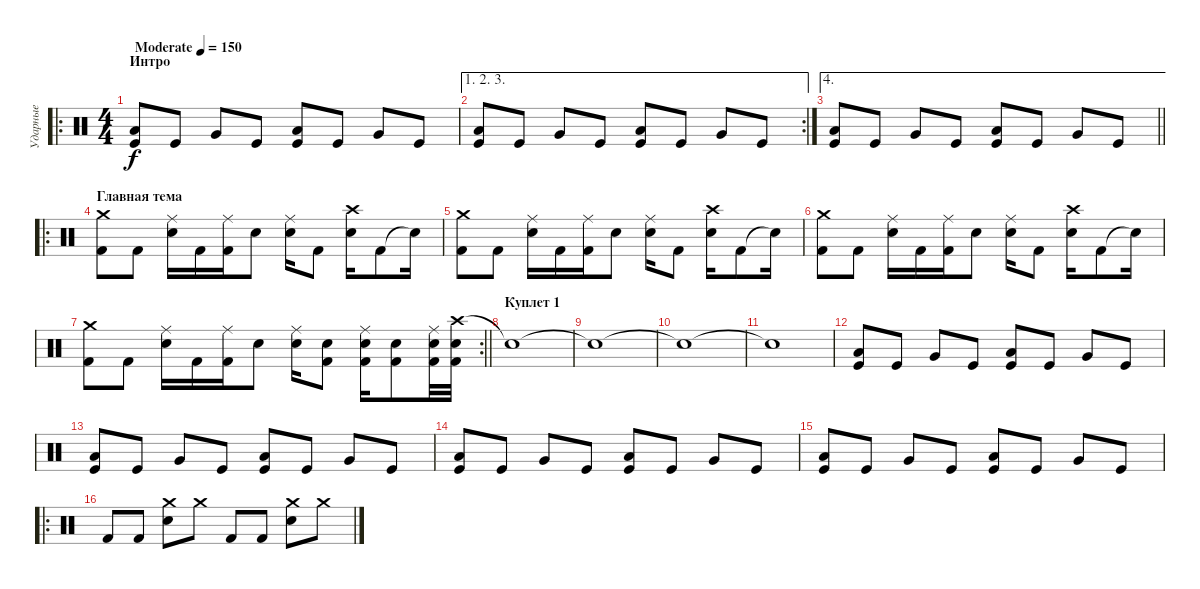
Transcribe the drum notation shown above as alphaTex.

\track ("Ударные" "Ударные") {instrument percussion}
\staff {score}
\articulation defaults
\ro
\ts (4 4)
\section ("" "Интро")
\tempo (150 "Moderate")
\clef neutral
\ks c
("Kick (hit)" "Low Floor Tom (hit)").8{dy f} "Kick (hit)".8 "Very Low Tom (hit)".8 "Kick (hit)".8 ("Kick (hit)" "Low Floor Tom (hit)").8 "Kick (hit)".8 "Very Low Tom (hit)".8 "Kick (hit)".8 |
\ae (1 2 3)
\rc 2
("Kick (hit)" "Low Floor Tom (hit)").8 "Kick (hit)".8 "Very Low Tom (hit)".8 "Kick (hit)".8 ("Kick (hit)" "Low Floor Tom (hit)").8 "Kick (hit)".8 "Very Low Tom (hit)".8 "Kick (hit)".8 |
\ae 4
\barLineRight lightlight
("Kick (hit)" "Low Floor Tom (hit)").8 "Kick (hit)".8 "Very Low Tom (hit)".8 "Kick (hit)".8 ("Kick (hit)" "Low Floor Tom (hit)").8 "Kick (hit)".8 "Very Low Tom (hit)".8 "Kick (hit)".8 |
\ro
\section ("" "Главная тема")
("Crash medium (hit)" "Kick (hit) 2").8 "Kick (hit) 2".8 ("Ride (middle)" "Electric Snare (hit)").16 "Kick (hit) 2".16 ("Ride (middle)" "Kick (hit) 2").16 "Electric Snare (hit)".8 ("Ride (middle)" "Electric Snare (hit)").16 "Kick (hit) 2".8 ("Crash high (hit)" "Electric Snare (hit)").16 "Kick (hit) 2".8 "Snare (hit)"{t}.16 |
("Crash medium (hit)" "Kick (hit) 2").8 "Kick (hit) 2".8 ("Ride (middle)" "Electric Snare (hit)").16 "Kick (hit) 2".16 ("Ride (middle)" "Kick (hit) 2").16 "Electric Snare (hit)".8 ("Ride (middle)" "Electric Snare (hit)").16 "Kick (hit) 2".8 ("Crash high (hit)" "Electric Snare (hit)").16 "Kick (hit) 2".8 "Snare (hit)"{t}.16 |
("Crash medium (hit)" "Kick (hit) 2").8 "Kick (hit) 2".8 ("Ride (middle)" "Electric Snare (hit)").16 "Kick (hit) 2".16 ("Ride (middle)" "Kick (hit) 2").16 "Electric Snare (hit)".8 ("Ride (middle)" "Electric Snare (hit)").16 "Kick (hit) 2".8 ("Crash high (hit)" "Electric Snare (hit)").16 "Kick (hit) 2".8 "Snare (hit)"{t}.16 |
\rc 2
\barLineRight lightlight
("Crash medium (hit)" "Kick (hit) 2").8 "Kick (hit) 2".8 ("Ride (middle)" "Electric Snare (hit)").16 "Kick (hit) 2".16 ("Ride (middle)" "Kick (hit) 2").16 "Electric Snare (hit)".8 ("Ride (middle)" "Electric Snare (hit)").16 ("Electric Snare (hit)" "Kick (hit) 2").8 ("Ride (middle)" "Electric Snare (hit)" "Kick (hit) 2").16 ("Electric Snare (hit)" "Kick (hit) 2").8 ("Ride (middle)" "Electric Snare (hit)" "Kick (hit) 2").32 ("Crash high (hit)" "Electric Snare (hit)" "Kick (hit) 2").32 |
\section ("" "Куплет 1")
"Snare (hit)"{t}.1 |
"Snare (hit)"{t}.1 |
"Snare (hit)"{t}.1 |
"Snare (hit)"{t}.1{volume 8} |
("Kick (hit)" "Low Floor Tom (hit)").8{volume 16} "Kick (hit)".8 "Very Low Tom (hit)".8 "Kick (hit)".8 ("Kick (hit)" "Low Floor Tom (hit)").8 "Kick (hit)".8 "Very Low Tom (hit)".8 "Kick (hit)".8 |
("Kick (hit)" "Low Floor Tom (hit)").8 "Kick (hit)".8 "Very Low Tom (hit)".8 "Kick (hit)".8 ("Kick (hit)" "Low Floor Tom (hit)").8 "Kick (hit)".8 "Very Low Tom (hit)".8 "Kick (hit)".8 |
("Kick (hit)" "Low Floor Tom (hit)").8 "Kick (hit)".8 "Very Low Tom (hit)".8 "Kick (hit)".8 ("Kick (hit)" "Low Floor Tom (hit)").8 "Kick (hit)".8 "Very Low Tom (hit)".8 "Kick (hit)".8 |
("Kick (hit)" "Low Floor Tom (hit)").8 "Kick (hit)".8 "Very Low Tom (hit)".8 "Kick (hit)".8 ("Kick (hit)" "Low Floor Tom (hit)").8 "Kick (hit)".8 "Very Low Tom (hit)".8 "Kick (hit)".8{volume 13} |
\ro "Kick (hit) 2".8 "Kick (hit) 2".8
("Crash medium (hit)" "Electric Snare (hit)").8 "Crash medium (hit)".8 "Kick (hit) 2".8 "Kick (hit) 2".8 ("Crash medium (hit)" "Electric Snare (hit)").8 "Crash medium (hit)".8
